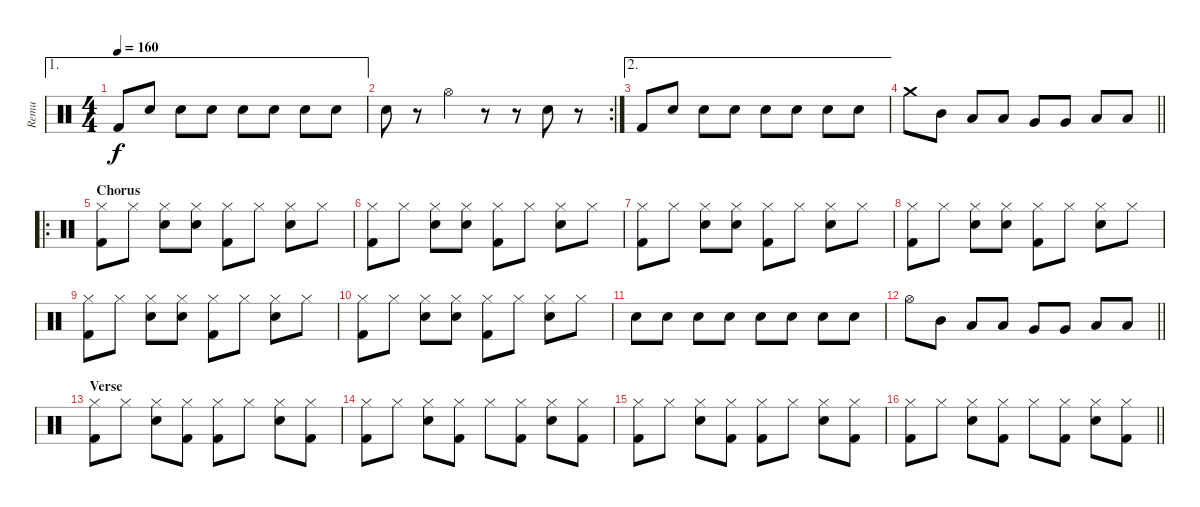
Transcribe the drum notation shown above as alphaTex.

\track ("Remu" "Remu") {instrument percussion}
\staff {score}
\articulation defaults
\ae 1
\ts (4 4)
\tempo 160
\clef neutral
\ks c "Kick (hit) 2".8{dy f} "Snare (hit) 2".8 "Snare (hit) 2".8 "Snare (hit) 2".8 "Snare (hit) 2".8 "Snare (hit) 2".8 "Snare (hit) 2".8 "Snare (hit) 2".8
|
\rc 2 "Snare (hit) 2".8
r.8 "Hi-Hat (open)".4 r.8 r.8 "Snare (hit) 2".8 r.8 |
\ae 2 "Kick (hit) 2".8 "Snare (hit) 2".8 "Snare (hit) 2".8 "Snare (hit) 2".8 "Snare (hit) 2".8 "Snare (hit) 2".8 "Snare (hit) 2".8 "Snare (hit) 2".8
|
\barLineRight lightlight "Crash medium (hit)".8 "Mid Tom (hit)".8 "Low Tom (hit)".8 "Low Tom (hit)".8 "Very Low Tom (hit)".8 "Very Low Tom (hit)".8 "Low Floor Tom (hit)".8 "Low Floor Tom (hit)".8
|
\ro
\section ("" "Chorus")
("Hi-Hat (closed)" "Kick (hit) 2").8 "Hi-Hat (closed)".8 ("Hi-Hat (closed)" "Snare (hit) 2").8 ("Hi-Hat (closed)" "Snare (hit) 2").8 ("Hi-Hat (closed)" "Kick (hit) 2").8 "Hi-Hat (closed)".8 ("Hi-Hat (closed)" "Snare (hit) 2").8 "Hi-Hat (closed)".8 |
("Hi-Hat (closed)" "Kick (hit) 2").8 "Hi-Hat (closed)".8 ("Hi-Hat (closed)" "Snare (hit) 2").8 ("Hi-Hat (closed)" "Snare (hit) 2").8 ("Hi-Hat (closed)" "Kick (hit) 2").8 "Hi-Hat (closed)".8 ("Hi-Hat (closed)" "Snare (hit) 2").8 "Hi-Hat (closed)".8 |
("Hi-Hat (closed)" "Kick (hit) 2").8 "Hi-Hat (closed)".8 ("Hi-Hat (closed)" "Snare (hit) 2").8 ("Hi-Hat (closed)" "Snare (hit) 2").8 ("Hi-Hat (closed)" "Kick (hit) 2").8 "Hi-Hat (closed)".8 ("Hi-Hat (closed)" "Snare (hit) 2").8 "Hi-Hat (closed)".8 |
("Hi-Hat (closed)" "Kick (hit) 2").8 "Hi-Hat (closed)".8 ("Hi-Hat (closed)" "Snare (hit) 2").8 ("Hi-Hat (closed)" "Snare (hit) 2").8 ("Hi-Hat (closed)" "Kick (hit) 2").8 "Hi-Hat (closed)".8 ("Hi-Hat (closed)" "Snare (hit) 2").8 "Hi-Hat (closed)".8 |
("Hi-Hat (closed)" "Kick (hit) 2").8 "Hi-Hat (closed)".8 ("Hi-Hat (closed)" "Snare (hit) 2").8 ("Hi-Hat (closed)" "Snare (hit) 2").8 ("Hi-Hat (closed)" "Kick (hit) 2").8 "Hi-Hat (closed)".8 ("Hi-Hat (closed)" "Snare (hit) 2").8 "Hi-Hat (closed)".8 |
("Hi-Hat (closed)" "Kick (hit) 2").8 "Hi-Hat (closed)".8 ("Hi-Hat (closed)" "Snare (hit) 2").8 ("Hi-Hat (closed)" "Snare (hit) 2").8 ("Hi-Hat (closed)" "Kick (hit) 2").8 "Hi-Hat (closed)".8 ("Hi-Hat (closed)" "Snare (hit) 2").8 "Hi-Hat (closed)".8 |
"Snare (hit) 2".8 "Snare (hit) 2".8 "Snare (hit) 2".8 "Snare (hit) 2".8 "Snare (hit) 2".8 "Snare (hit) 2".8 "Snare (hit) 2".8 "Snare (hit) 2".8 |
\barLineRight lightlight "Hi-Hat (open)".8 "Mid Tom (hit)".8 "Low Tom (hit)".8 "Low Tom (hit)".8 "Very Low Tom (hit)".8 "Very Low Tom (hit)".8 "Low Floor Tom (hit)".8 "Low Floor Tom (hit)".8
|
\section ("" "Verse")
("Hi-Hat (closed)" "Kick (hit) 2").8 "Hi-Hat (closed)".8 ("Hi-Hat (closed)" "Electric Snare (hit)").8 ("Hi-Hat (closed)" "Kick (hit) 2").8 ("Hi-Hat (closed)" "Kick (hit) 2").8 "Hi-Hat (closed)".8 ("Hi-Hat (closed)" "Electric Snare (hit)").8 ("Hi-Hat (closed)" "Kick (hit) 2").8 |
("Hi-Hat (closed)" "Kick (hit) 2").8 "Hi-Hat (closed)".8 ("Hi-Hat (closed)" "Electric Snare (hit)").8 ("Hi-Hat (closed)" "Kick (hit) 2").8 "Hi-Hat (closed)".8 ("Hi-Hat (closed)" "Kick (hit) 2").8 ("Hi-Hat (closed)" "Electric Snare (hit)").8 ("Hi-Hat (closed)" "Kick (hit) 2").8 |
("Hi-Hat (closed)" "Kick (hit) 2").8 "Hi-Hat (closed)".8 ("Hi-Hat (closed)" "Electric Snare (hit)").8 ("Hi-Hat (closed)" "Kick (hit) 2").8 ("Hi-Hat (closed)" "Kick (hit) 2").8 "Hi-Hat (closed)".8 ("Hi-Hat (closed)" "Electric Snare (hit)").8 ("Hi-Hat (closed)" "Kick (hit) 2").8 |
\barLineRight lightlight
("Hi-Hat (closed)" "Kick (hit) 2").8 "Hi-Hat (closed)".8 ("Hi-Hat (closed)" "Electric Snare (hit)").8 ("Hi-Hat (closed)" "Kick (hit) 2").8 "Hi-Hat (closed)".8 ("Hi-Hat (closed)" "Kick (hit) 2").8 ("Hi-Hat (closed)" "Electric Snare (hit)").8 ("Hi-Hat (closed)" "Kick (hit) 2").8
